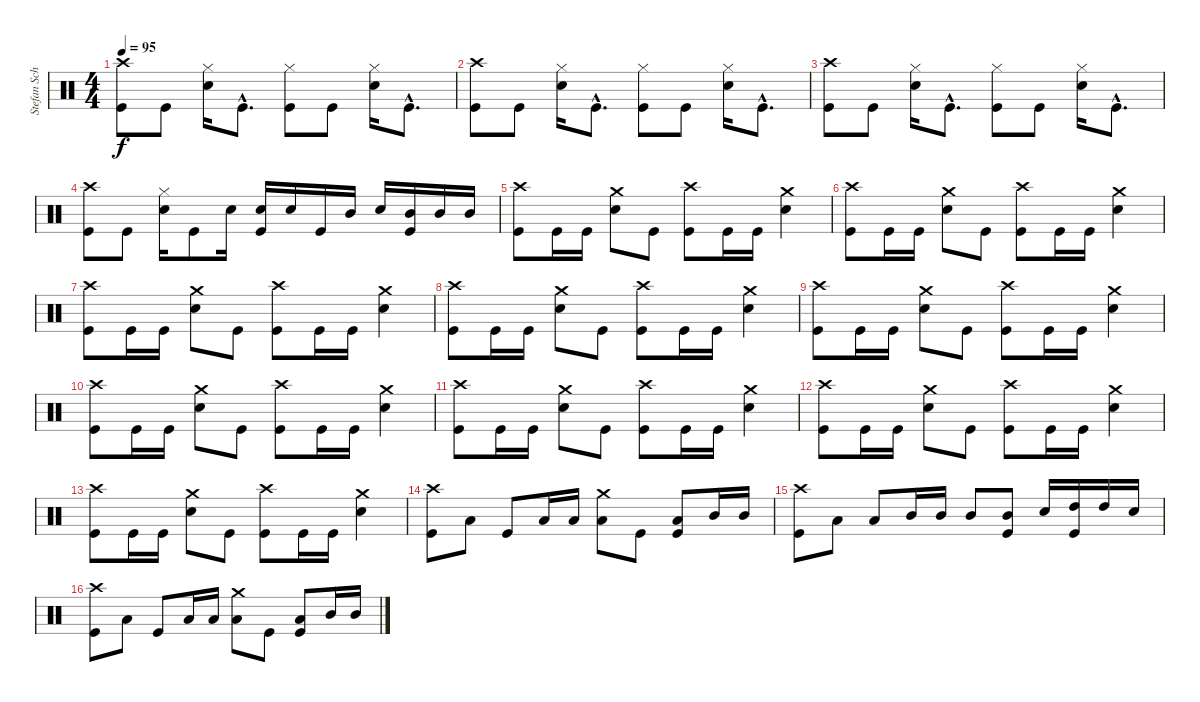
\track ("Stefan Schwarzmann - -drums" "Stefan Sch") {instrument percussion}
\staff {score}
\articulation defaults
\ts (4 4)
\tempo 95
\clef neutral
\ks c
("Crash high (hit)" "Kick (hit)").8{dy f} "Kick (hit)".8 ("Hi-Hat (closed)" "Electric Snare (hit)").16 "Kick (hit)"{hac}.8{d} ("Hi-Hat (closed)" "Kick (hit)").8 "Kick (hit)".8 ("Hi-Hat (closed)" "Electric Snare (hit)").16 "Kick (hit)"{hac}.8{d} |
("Crash high (hit)" "Kick (hit)").8 "Kick (hit)".8 ("Hi-Hat (closed)" "Electric Snare (hit)").16 "Kick (hit)"{hac}.8{d} ("Hi-Hat (closed)" "Kick (hit)").8 "Kick (hit)".8 ("Hi-Hat (closed)" "Electric Snare (hit)").16 "Kick (hit)"{hac}.8{d} |
("Crash high (hit)" "Kick (hit)").8 "Kick (hit)".8 ("Hi-Hat (closed)" "Electric Snare (hit)").16 "Kick (hit)"{hac}.8{d} ("Hi-Hat (closed)" "Kick (hit)").8 "Kick (hit)".8 ("Hi-Hat (closed)" "Electric Snare (hit)").16 "Kick (hit)"{hac}.8{d} |
("Crash high (hit)" "Kick (hit)").8 "Kick (hit)".8 ("Hi-Hat (closed)" "Electric Snare (hit)").16 "Kick (hit)".8 "Electric Snare (hit)".16 ("Electric Snare (hit)" "Kick (hit)").16 "Electric Snare (hit)".16 "Kick (hit)".16 "Mid Tom (hit)".16 "Electric Snare (hit)".16 ("Mid Tom (hit)" "Kick (hit)").16 "Mid Tom (hit)".16 "Mid Tom (hit)".16 |
("Crash high (hit)" "Kick (hit)").8 "Kick (hit)".16 "Kick (hit)".16 ("Crash medium (hit)" "Electric Snare (hit)").8 "Kick (hit)".8 ("Crash high (hit)" "Kick (hit)").8 "Kick (hit)".16 "Kick (hit)".16 ("Crash medium (hit)" "Electric Snare (hit)").4 |
("Crash high (hit)" "Kick (hit)").8 "Kick (hit)".16 "Kick (hit)".16 ("Crash medium (hit)" "Electric Snare (hit)").8 "Kick (hit)".8 ("Crash high (hit)" "Kick (hit)").8 "Kick (hit)".16 "Kick (hit)".16 ("Crash medium (hit)" "Electric Snare (hit)").4 |
("Crash high (hit)" "Kick (hit)").8 "Kick (hit)".16 "Kick (hit)".16 ("Crash medium (hit)" "Electric Snare (hit)").8 "Kick (hit)".8 ("Crash high (hit)" "Kick (hit)").8 "Kick (hit)".16 "Kick (hit)".16 ("Crash medium (hit)" "Electric Snare (hit)").4 |
("Crash high (hit)" "Kick (hit)").8 "Kick (hit)".16 "Kick (hit)".16 ("Crash medium (hit)" "Electric Snare (hit)").8 "Kick (hit)".8 ("Crash high (hit)" "Kick (hit)").8 "Kick (hit)".16 "Kick (hit)".16 ("Crash medium (hit)" "Electric Snare (hit)").4 |
("Crash high (hit)" "Kick (hit)").8 "Kick (hit)".16 "Kick (hit)".16 ("Crash medium (hit)" "Electric Snare (hit)").8 "Kick (hit)".8 ("Crash high (hit)" "Kick (hit)").8 "Kick (hit)".16 "Kick (hit)".16 ("Crash medium (hit)" "Electric Snare (hit)").4 |
("Crash high (hit)" "Kick (hit)").8 "Kick (hit)".16 "Kick (hit)".16 ("Crash medium (hit)" "Electric Snare (hit)").8 "Kick (hit)".8 ("Crash high (hit)" "Kick (hit)").8 "Kick (hit)".16 "Kick (hit)".16 ("Crash medium (hit)" "Electric Snare (hit)").4 |
("Crash high (hit)" "Kick (hit)").8 "Kick (hit)".16 "Kick (hit)".16 ("Crash medium (hit)" "Electric Snare (hit)").8 "Kick (hit)".8 ("Crash high (hit)" "Kick (hit)").8 "Kick (hit)".16 "Kick (hit)".16 ("Crash medium (hit)" "Electric Snare (hit)").4 |
("Crash high (hit)" "Kick (hit)").8 "Kick (hit)".16 "Kick (hit)".16 ("Crash medium (hit)" "Electric Snare (hit)").8 "Kick (hit)".8 ("Crash high (hit)" "Kick (hit)").8 "Kick (hit)".16 "Kick (hit)".16 ("Crash medium (hit)" "Electric Snare (hit)").4 |
("Crash high (hit)" "Kick (hit)").8 "Kick (hit)".16 "Kick (hit)".16 ("Crash medium (hit)" "Electric Snare (hit)").8 "Kick (hit)".8 ("Crash high (hit)" "Kick (hit)").8 "Kick (hit)".16 "Kick (hit)".16 ("Crash medium (hit)" "Electric Snare (hit)").4 |
("Crash high (hit)" "Kick (hit)").8 "Low Tom (hit)".8 "Kick (hit)".8 "Low Tom (hit)".16 "Low Tom (hit)".16 ("Crash medium (hit)" "Low Tom (hit)").8 "Kick (hit)".8 ("Low Tom (hit)" "Kick (hit)").8 "Mid Tom (hit)".16 "Mid Tom (hit)".16 |
("Crash high (hit)" "Kick (hit)").8 "Low Tom (hit)".8 "Low Tom (hit)".8 "Mid Tom (hit)".16 "Mid Tom (hit)".16 "Mid Tom (hit)".8 ("Mid Tom (hit)" "Kick (hit)").8 "Electric Snare (hit)".16 ("High Tom (hit)" "Kick (hit)").16 "High Tom (hit)".16 "Electric Snare (hit)".16 |
("Crash high (hit)" "Kick (hit)").8 "Low Tom (hit)".8 "Kick (hit)".8 "Low Tom (hit)".16 "Low Tom (hit)".16 ("Crash medium (hit)" "Low Tom (hit)").8 "Kick (hit)".8 ("Low Tom (hit)" "Kick (hit)").8 "Mid Tom (hit)".16 "Mid Tom (hit)".16
